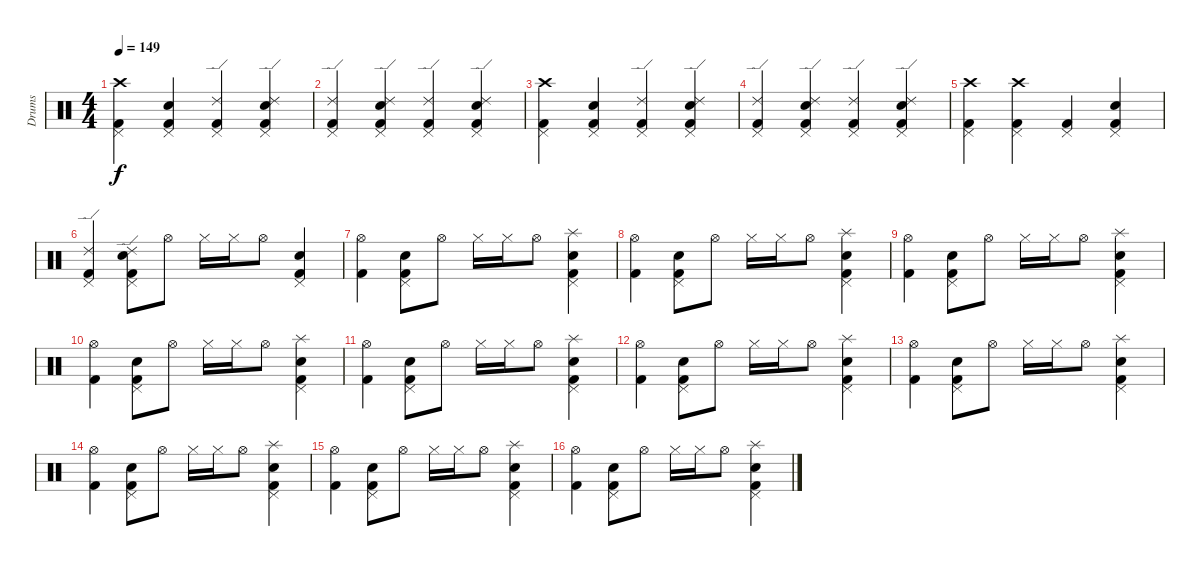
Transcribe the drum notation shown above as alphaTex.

\track ("Drums" "Drums") {instrument percussion}
\staff {score}
\articulation defaults
\ts (4 4)
\tempo 149
\clef neutral
\ks c
("Crash high (hit)" "Kick (hit) 2" "Pedal Hi-Hat (hit)").4{dy f} ("Electric Snare (hit)" "Kick (hit) 2" "Pedal Hi-Hat (hit)").4 ("Ride (edge) 2" "Kick (hit) 2" "Pedal Hi-Hat (hit)").4 ("Ride (edge) 2" "Electric Snare (hit)" "Kick (hit) 2" "Pedal Hi-Hat (hit)").4 |
("Ride (edge) 2" "Kick (hit) 2" "Pedal Hi-Hat (hit)").4 ("Ride (edge) 2" "Electric Snare (hit)" "Kick (hit) 2" "Pedal Hi-Hat (hit)").4 ("Ride (edge) 2" "Kick (hit) 2" "Pedal Hi-Hat (hit)").4 ("Ride (edge) 2" "Electric Snare (hit)" "Kick (hit) 2" "Pedal Hi-Hat (hit)").4 |
("Crash high (hit)" "Kick (hit) 2" "Pedal Hi-Hat (hit)").4 ("Electric Snare (hit)" "Kick (hit) 2" "Pedal Hi-Hat (hit)").4 ("Ride (edge) 2" "Kick (hit) 2" "Pedal Hi-Hat (hit)").4 ("Ride (edge) 2" "Electric Snare (hit)" "Kick (hit) 2" "Pedal Hi-Hat (hit)").4 |
("Ride (edge) 2" "Kick (hit) 2" "Pedal Hi-Hat (hit)").4 ("Ride (edge) 2" "Electric Snare (hit)" "Kick (hit) 2" "Pedal Hi-Hat (hit)").4 ("Ride (edge) 2" "Kick (hit) 2" "Pedal Hi-Hat (hit)").4 ("Ride (edge) 2" "Electric Snare (hit)" "Kick (hit) 2" "Pedal Hi-Hat (hit)").4 |
("Crash high (hit)" "Kick (hit) 2" "Pedal Hi-Hat (hit)").4 ("Crash high (hit)" "Kick (hit) 2" "Pedal Hi-Hat (hit)").4 ("Kick (hit) 2" "Pedal Hi-Hat (hit)").4 ("Electric Snare (hit)" "Kick (hit) 2" "Pedal Hi-Hat (hit)").4 |
("Ride (edge) 2" "Kick (hit) 2" "Pedal Hi-Hat (hit)").4 ("Ride (edge) 2" "Electric Snare (hit)" "Kick (hit) 2" "Pedal Hi-Hat (hit)").8 "Hi-Hat (open)".8 "Hi-Hat (closed)".16 "Hi-Hat (closed)".16 "Hi-Hat (open)".8 ("Electric Snare (hit)" "Kick (hit) 2" "Pedal Hi-Hat (hit)").4 |
("Hi-Hat (open)" "Kick (hit) 2").4 ("Electric Snare (hit)" "Kick (hit) 2" "Pedal Hi-Hat (hit)").8 "Hi-Hat (open)".8 "Hi-Hat (closed)".16 "Hi-Hat (closed)".16 "Hi-Hat (open)".8 ("Splash (hit)" "Electric Snare (hit)" "Kick (hit) 2" "Pedal Hi-Hat (hit)").4 |
("Hi-Hat (open)" "Kick (hit) 2").4 ("Electric Snare (hit)" "Kick (hit) 2" "Pedal Hi-Hat (hit)").8 "Hi-Hat (open)".8 "Hi-Hat (closed)".16 "Hi-Hat (closed)".16 "Hi-Hat (open)".8 ("Splash (hit)" "Electric Snare (hit)" "Kick (hit) 2" "Pedal Hi-Hat (hit)").4 |
("Hi-Hat (open)" "Kick (hit) 2").4 ("Electric Snare (hit)" "Kick (hit) 2" "Pedal Hi-Hat (hit)").8 "Hi-Hat (open)".8 "Hi-Hat (closed)".16 "Hi-Hat (closed)".16 "Hi-Hat (open)".8 ("Splash (hit)" "Electric Snare (hit)" "Kick (hit) 2" "Pedal Hi-Hat (hit)").4 |
("Hi-Hat (open)" "Kick (hit) 2").4 ("Electric Snare (hit)" "Kick (hit) 2" "Pedal Hi-Hat (hit)").8 "Hi-Hat (open)".8 "Hi-Hat (closed)".16 "Hi-Hat (closed)".16 "Hi-Hat (open)".8 ("Splash (hit)" "Electric Snare (hit)" "Kick (hit) 2" "Pedal Hi-Hat (hit)").4 |
("Hi-Hat (open)" "Kick (hit) 2").4 ("Electric Snare (hit)" "Kick (hit) 2" "Pedal Hi-Hat (hit)").8 "Hi-Hat (open)".8 "Hi-Hat (closed)".16 "Hi-Hat (closed)".16 "Hi-Hat (open)".8 ("Splash (hit)" "Electric Snare (hit)" "Kick (hit) 2" "Pedal Hi-Hat (hit)").4 |
("Hi-Hat (open)" "Kick (hit) 2").4 ("Electric Snare (hit)" "Kick (hit) 2" "Pedal Hi-Hat (hit)").8 "Hi-Hat (open)".8 "Hi-Hat (closed)".16 "Hi-Hat (closed)".16 "Hi-Hat (open)".8 ("Splash (hit)" "Electric Snare (hit)" "Kick (hit) 2" "Pedal Hi-Hat (hit)").4 |
("Hi-Hat (open)" "Kick (hit) 2").4 ("Electric Snare (hit)" "Kick (hit) 2" "Pedal Hi-Hat (hit)").8 "Hi-Hat (open)".8 "Hi-Hat (closed)".16 "Hi-Hat (closed)".16 "Hi-Hat (open)".8 ("Splash (hit)" "Electric Snare (hit)" "Kick (hit) 2" "Pedal Hi-Hat (hit)").4 |
("Hi-Hat (open)" "Kick (hit) 2").4 ("Electric Snare (hit)" "Kick (hit) 2" "Pedal Hi-Hat (hit)").8 "Hi-Hat (open)".8 "Hi-Hat (closed)".16 "Hi-Hat (closed)".16 "Hi-Hat (open)".8 ("Splash (hit)" "Electric Snare (hit)" "Kick (hit) 2" "Pedal Hi-Hat (hit)").4 |
("Hi-Hat (open)" "Kick (hit) 2").4 ("Electric Snare (hit)" "Kick (hit) 2" "Pedal Hi-Hat (hit)").8 "Hi-Hat (open)".8 "Hi-Hat (closed)".16 "Hi-Hat (closed)".16 "Hi-Hat (open)".8 ("Splash (hit)" "Electric Snare (hit)" "Kick (hit) 2" "Pedal Hi-Hat (hit)").4 |
("Hi-Hat (open)" "Kick (hit) 2").4 ("Electric Snare (hit)" "Kick (hit) 2" "Pedal Hi-Hat (hit)").8 "Hi-Hat (open)".8 "Hi-Hat (closed)".16 "Hi-Hat (closed)".16 "Hi-Hat (open)".8 ("Splash (hit)" "Electric Snare (hit)" "Kick (hit) 2" "Pedal Hi-Hat (hit)").4
